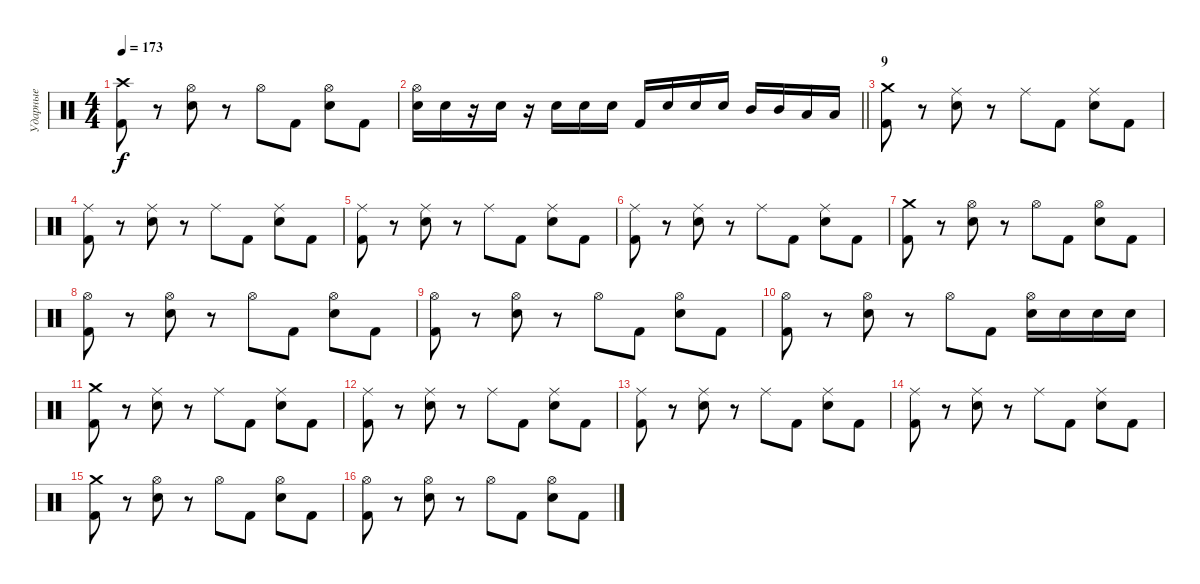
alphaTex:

\track ("Ударные" "Ударные") {instrument percussion}
\staff {score}
\articulation defaults
\ts (4 4)
\tempo 173
\clef neutral
\ks c
("Crash high (hit)" "Kick (hit) 2").8{dy f} r.8 ("Hi-Hat (open)" "Snare (hit) 2").8 r.8 "Hi-Hat (open)".8 "Kick (hit) 2".8 ("Hi-Hat (open)" "Snare (hit) 2").8 "Kick (hit) 2".8 |
\barLineRight lightlight
("Hi-Hat (open)" "Snare (hit) 2").16 "Snare (hit) 2".16 r.16 "Snare (hit) 2".16 r.16 "Snare (hit) 2".16 "Snare (hit) 2".16 "Snare (hit) 2".16 "Kick (hit) 2".16 "Snare (hit) 2".16 "Snare (hit) 2".16 "Snare (hit) 2".16 "Mid Tom (hit)".16 "Mid Tom (hit)".16 "Low Tom (hit)".16 "Low Tom (hit)".16 |
\section ("" "9")
("Crash medium (hit)" "Kick (hit) 2").8 r.8 ("Ride (middle)" "Snare (hit) 2").8 r.8 "Ride (middle)".8 "Kick (hit) 2".8 ("Ride (middle)" "Snare (hit) 2").8 "Kick (hit) 2".8 |
("Ride (middle)" "Kick (hit) 2").8 r.8 ("Ride (middle)" "Snare (hit) 2").8 r.8 "Ride (middle)".8 "Kick (hit) 2".8 ("Ride (middle)" "Snare (hit) 2").8 "Kick (hit) 2".8 |
("Ride (middle)" "Kick (hit) 2").8 r.8 ("Ride (middle)" "Snare (hit) 2").8 r.8 "Ride (middle)".8 "Kick (hit) 2".8 ("Ride (middle)" "Snare (hit) 2").8 "Kick (hit) 2".8 |
("Ride (middle)" "Kick (hit) 2").8 r.8 ("Ride (middle)" "Snare (hit) 2").8 r.8 "Ride (middle)".8 "Kick (hit) 2".8 ("Ride (middle)" "Snare (hit) 2").8 "Kick (hit) 2".8 |
("Crash medium (hit)" "Kick (hit) 2").8 r.8 ("Hi-Hat (open)" "Snare (hit) 2").8 r.8 "Hi-Hat (open)".8 "Kick (hit) 2".8 ("Hi-Hat (open)" "Snare (hit) 2").8 "Kick (hit) 2".8 |
("Hi-Hat (open)" "Kick (hit) 2").8 r.8 ("Hi-Hat (open)" "Snare (hit) 2").8 r.8 "Hi-Hat (open)".8 "Kick (hit) 2".8 ("Hi-Hat (open)" "Snare (hit) 2").8 "Kick (hit) 2".8 |
("Hi-Hat (open)" "Kick (hit) 2").8 r.8 ("Hi-Hat (open)" "Snare (hit) 2").8 r.8 "Hi-Hat (open)".8 "Kick (hit) 2".8 ("Hi-Hat (open)" "Snare (hit) 2").8 "Kick (hit) 2".8 |
("Hi-Hat (open)" "Kick (hit) 2").8 r.8 ("Hi-Hat (open)" "Snare (hit) 2").8 r.8 "Hi-Hat (open)".8 "Kick (hit) 2".8 ("Hi-Hat (open)" "Snare (hit) 2").16 "Snare (hit) 2".16 "Snare (hit) 2".16 "Snare (hit) 2".16 |
("Crash medium (hit)" "Kick (hit) 2").8 r.8 ("Ride (middle)" "Snare (hit) 2").8 r.8 "Ride (middle)".8 "Kick (hit) 2".8 ("Ride (middle)" "Snare (hit) 2").8 "Kick (hit) 2".8 |
("Ride (middle)" "Kick (hit) 2").8 r.8 ("Ride (middle)" "Snare (hit) 2").8 r.8 "Ride (middle)".8 "Kick (hit) 2".8 ("Ride (middle)" "Snare (hit) 2").8 "Kick (hit) 2".8 |
("Ride (middle)" "Kick (hit) 2").8 r.8 ("Ride (middle)" "Snare (hit) 2").8 r.8 "Ride (middle)".8 "Kick (hit) 2".8 ("Ride (middle)" "Snare (hit) 2").8 "Kick (hit) 2".8 |
("Ride (middle)" "Kick (hit) 2").8 r.8 ("Ride (middle)" "Snare (hit) 2").8 r.8 "Ride (middle)".8 "Kick (hit) 2".8 ("Ride (middle)" "Snare (hit) 2").8 "Kick (hit) 2".8 |
("Crash medium (hit)" "Kick (hit) 2").8 r.8 ("Hi-Hat (open)" "Snare (hit) 2").8 r.8 "Hi-Hat (open)".8 "Kick (hit) 2".8 ("Hi-Hat (open)" "Snare (hit) 2").8 "Kick (hit) 2".8 |
("Hi-Hat (open)" "Kick (hit) 2").8 r.8 ("Hi-Hat (open)" "Snare (hit) 2").8 r.8 "Hi-Hat (open)".8 "Kick (hit) 2".8 ("Hi-Hat (open)" "Snare (hit) 2").8 "Kick (hit) 2".8
